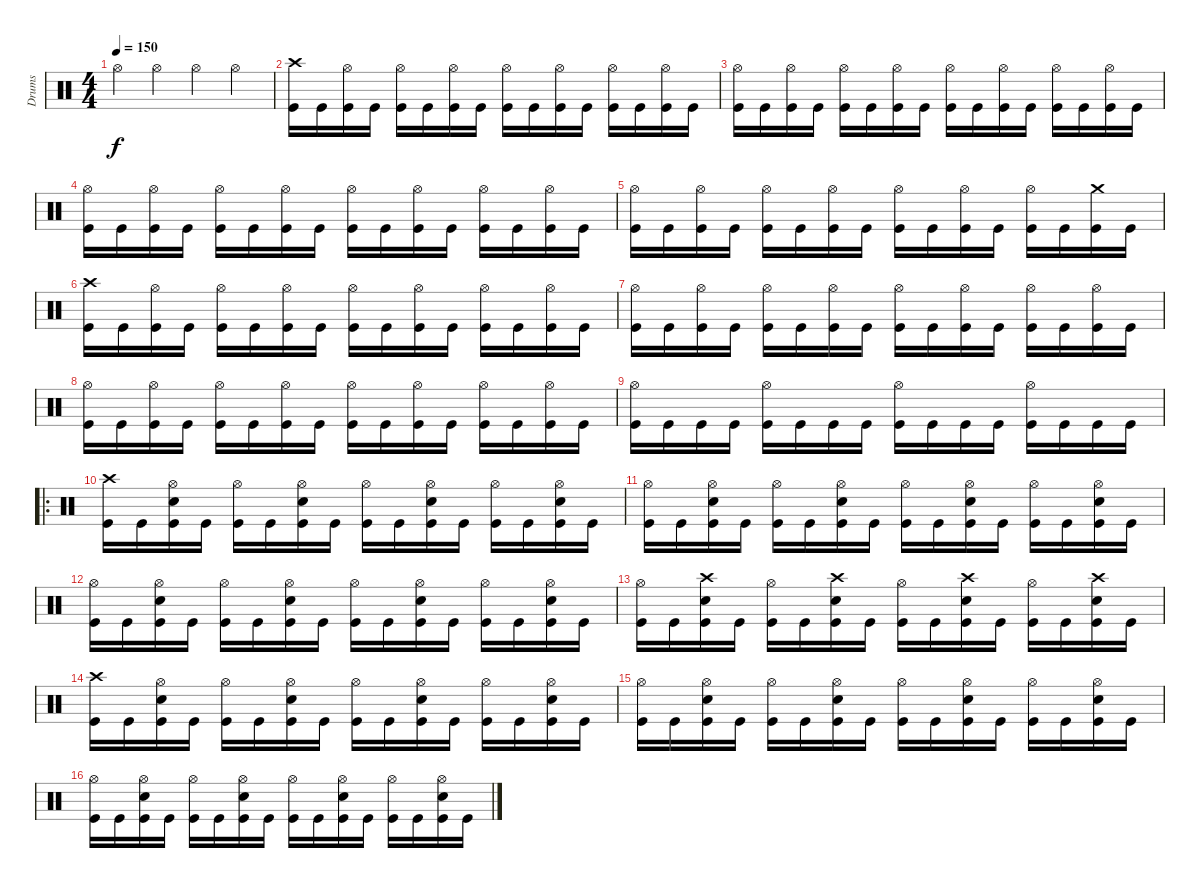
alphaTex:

\track ("Drums" "Drums") {instrument percussion}
\staff {score}
\articulation defaults
\ts (4 4)
\tempo 150
\clef neutral
\ks c "Hi-Hat (open)".4{dy f} "Hi-Hat (open)".4 "Hi-Hat (open)".4 "Hi-Hat (open)".4
|
("Crash high (hit)" "Kick (hit)").16 "Kick (hit)".16 ("Hi-Hat (open)" "Kick (hit)").16 "Kick (hit)".16 ("Hi-Hat (open)" "Kick (hit)").16 "Kick (hit)".16 ("Hi-Hat (open)" "Kick (hit)").16 "Kick (hit)".16 ("Hi-Hat (open)" "Kick (hit)").16 "Kick (hit)".16 ("Hi-Hat (open)" "Kick (hit)").16 "Kick (hit)".16 ("Hi-Hat (open)" "Kick (hit)").16 "Kick (hit)".16 ("Hi-Hat (open)" "Kick (hit)").16 "Kick (hit)".16 |
("Hi-Hat (open)" "Kick (hit)").16 "Kick (hit)".16 ("Hi-Hat (open)" "Kick (hit)").16 "Kick (hit)".16 ("Hi-Hat (open)" "Kick (hit)").16 "Kick (hit)".16 ("Hi-Hat (open)" "Kick (hit)").16 "Kick (hit)".16 ("Hi-Hat (open)" "Kick (hit)").16 "Kick (hit)".16 ("Hi-Hat (open)" "Kick (hit)").16 "Kick (hit)".16 ("Hi-Hat (open)" "Kick (hit)").16 "Kick (hit)".16 ("Hi-Hat (open)" "Kick (hit)").16 "Kick (hit)".16 |
("Hi-Hat (open)" "Kick (hit)").16 "Kick (hit)".16 ("Hi-Hat (open)" "Kick (hit)").16 "Kick (hit)".16 ("Hi-Hat (open)" "Kick (hit)").16 "Kick (hit)".16 ("Hi-Hat (open)" "Kick (hit)").16 "Kick (hit)".16 ("Hi-Hat (open)" "Kick (hit)").16 "Kick (hit)".16 ("Hi-Hat (open)" "Kick (hit)").16 "Kick (hit)".16 ("Hi-Hat (open)" "Kick (hit)").16 "Kick (hit)".16 ("Hi-Hat (open)" "Kick (hit)").16 "Kick (hit)".16 |
("Hi-Hat (open)" "Kick (hit)").16 "Kick (hit)".16 ("Hi-Hat (open)" "Kick (hit)").16 "Kick (hit)".16 ("Hi-Hat (open)" "Kick (hit)").16 "Kick (hit)".16 ("Hi-Hat (open)" "Kick (hit)").16 "Kick (hit)".16 ("Hi-Hat (open)" "Kick (hit)").16 "Kick (hit)".16 ("Hi-Hat (open)" "Kick (hit)").16 "Kick (hit)".16 ("Hi-Hat (open)" "Kick (hit)").16 "Kick (hit)".16 ("Crash medium (hit)" "Kick (hit)").16 "Kick (hit)".16 |
("Crash high (hit)" "Kick (hit)").16 "Kick (hit)".16 ("Hi-Hat (open)" "Kick (hit)").16 "Kick (hit)".16 ("Hi-Hat (open)" "Kick (hit)").16 "Kick (hit)".16 ("Hi-Hat (open)" "Kick (hit)").16 "Kick (hit)".16 ("Hi-Hat (open)" "Kick (hit)").16 "Kick (hit)".16 ("Hi-Hat (open)" "Kick (hit)").16 "Kick (hit)".16 ("Hi-Hat (open)" "Kick (hit)").16 "Kick (hit)".16 ("Hi-Hat (open)" "Kick (hit)").16 "Kick (hit)".16 |
("Hi-Hat (open)" "Kick (hit)").16 "Kick (hit)".16 ("Hi-Hat (open)" "Kick (hit)").16 "Kick (hit)".16 ("Hi-Hat (open)" "Kick (hit)").16 "Kick (hit)".16 ("Hi-Hat (open)" "Kick (hit)").16 "Kick (hit)".16 ("Hi-Hat (open)" "Kick (hit)").16 "Kick (hit)".16 ("Hi-Hat (open)" "Kick (hit)").16 "Kick (hit)".16 ("Hi-Hat (open)" "Kick (hit)").16 "Kick (hit)".16 ("Hi-Hat (open)" "Kick (hit)").16 "Kick (hit)".16 |
("Hi-Hat (open)" "Kick (hit)").16 "Kick (hit)".16 ("Hi-Hat (open)" "Kick (hit)").16 "Kick (hit)".16 ("Hi-Hat (open)" "Kick (hit)").16 "Kick (hit)".16 ("Hi-Hat (open)" "Kick (hit)").16 "Kick (hit)".16 ("Hi-Hat (open)" "Kick (hit)").16 "Kick (hit)".16 ("Hi-Hat (open)" "Kick (hit)").16 "Kick (hit)".16 ("Hi-Hat (open)" "Kick (hit)").16 "Kick (hit)".16 ("Hi-Hat (open)" "Kick (hit)").16 "Kick (hit)".16 |
("Hi-Hat (open)" "Kick (hit)").16 "Kick (hit)".16 "Kick (hit)".16 "Kick (hit)".16 ("Hi-Hat (open)" "Kick (hit)").16 "Kick (hit)".16 "Kick (hit)".16 "Kick (hit)".16 ("Hi-Hat (open)" "Kick (hit)").16 "Kick (hit)".16 "Kick (hit)".16 "Kick (hit)".16 ("Hi-Hat (open)" "Kick (hit)").16 "Kick (hit)".16 "Kick (hit)".16 "Kick (hit)".16 |
\ro
("Crash high (hit)" "Kick (hit)").16 "Kick (hit)".16 ("Hi-Hat (open)" "Snare (hit) 2" "Kick (hit)").16 "Kick (hit)".16 ("Hi-Hat (open)" "Kick (hit)").16 "Kick (hit)".16 ("Hi-Hat (open)" "Snare (hit) 2" "Kick (hit)").16 "Kick (hit)".16 ("Hi-Hat (open)" "Kick (hit)").16 "Kick (hit)".16 ("Hi-Hat (open)" "Snare (hit) 2" "Kick (hit)").16 "Kick (hit)".16 ("Hi-Hat (open)" "Kick (hit)").16 "Kick (hit)".16 ("Hi-Hat (open)" "Snare (hit) 2" "Kick (hit)").16 "Kick (hit)".16 |
("Hi-Hat (open)" "Kick (hit)").16 "Kick (hit)".16 ("Hi-Hat (open)" "Snare (hit) 2" "Kick (hit)").16 "Kick (hit)".16 ("Hi-Hat (open)" "Kick (hit)").16 "Kick (hit)".16 ("Hi-Hat (open)" "Snare (hit) 2" "Kick (hit)").16 "Kick (hit)".16 ("Hi-Hat (open)" "Kick (hit)").16 "Kick (hit)".16 ("Hi-Hat (open)" "Snare (hit) 2" "Kick (hit)").16 "Kick (hit)".16 ("Hi-Hat (open)" "Kick (hit)").16 "Kick (hit)".16 ("Hi-Hat (open)" "Snare (hit) 2" "Kick (hit)").16 "Kick (hit)".16 |
("Hi-Hat (open)" "Kick (hit)").16 "Kick (hit)".16 ("Hi-Hat (open)" "Snare (hit) 2" "Kick (hit)").16 "Kick (hit)".16 ("Hi-Hat (open)" "Kick (hit)").16 "Kick (hit)".16 ("Hi-Hat (open)" "Snare (hit) 2" "Kick (hit)").16 "Kick (hit)".16 ("Hi-Hat (open)" "Kick (hit)").16 "Kick (hit)".16 ("Hi-Hat (open)" "Snare (hit) 2" "Kick (hit)").16 "Kick (hit)".16 ("Hi-Hat (open)" "Kick (hit)").16 "Kick (hit)".16 ("Hi-Hat (open)" "Snare (hit) 2" "Kick (hit)").16 "Kick (hit)".16 |
("Hi-Hat (open)" "Kick (hit)").16 "Kick (hit)".16 ("Crash high (hit)" "Snare (hit) 2" "Kick (hit)").16 "Kick (hit)".16 ("Hi-Hat (open)" "Kick (hit)").16 "Kick (hit)".16 ("Crash high (hit)" "Snare (hit) 2" "Kick (hit)").16 "Kick (hit)".16 ("Hi-Hat (open)" "Kick (hit)").16 "Kick (hit)".16 ("Crash high (hit)" "Snare (hit) 2" "Kick (hit)").16 "Kick (hit)".16 ("Hi-Hat (open)" "Kick (hit)").16 "Kick (hit)".16 ("Crash high (hit)" "Snare (hit) 2" "Kick (hit)").16 "Kick (hit)".16 |
("Crash high (hit)" "Kick (hit)").16 "Kick (hit)".16 ("Hi-Hat (open)" "Snare (hit) 2" "Kick (hit)").16 "Kick (hit)".16 ("Hi-Hat (open)" "Kick (hit)").16 "Kick (hit)".16 ("Hi-Hat (open)" "Snare (hit) 2" "Kick (hit)").16 "Kick (hit)".16 ("Hi-Hat (open)" "Kick (hit)").16 "Kick (hit)".16 ("Hi-Hat (open)" "Snare (hit) 2" "Kick (hit)").16 "Kick (hit)".16 ("Hi-Hat (open)" "Kick (hit)").16 "Kick (hit)".16 ("Hi-Hat (open)" "Snare (hit) 2" "Kick (hit)").16 "Kick (hit)".16 |
("Hi-Hat (open)" "Kick (hit)").16 "Kick (hit)".16 ("Hi-Hat (open)" "Snare (hit) 2" "Kick (hit)").16 "Kick (hit)".16 ("Hi-Hat (open)" "Kick (hit)").16 "Kick (hit)".16 ("Hi-Hat (open)" "Snare (hit) 2" "Kick (hit)").16 "Kick (hit)".16 ("Hi-Hat (open)" "Kick (hit)").16 "Kick (hit)".16 ("Hi-Hat (open)" "Snare (hit) 2" "Kick (hit)").16 "Kick (hit)".16 ("Hi-Hat (open)" "Kick (hit)").16 "Kick (hit)".16 ("Hi-Hat (open)" "Snare (hit) 2" "Kick (hit)").16 "Kick (hit)".16 |
("Hi-Hat (open)" "Kick (hit)").16 "Kick (hit)".16 ("Hi-Hat (open)" "Snare (hit) 2" "Kick (hit)").16 "Kick (hit)".16 ("Hi-Hat (open)" "Kick (hit)").16 "Kick (hit)".16 ("Hi-Hat (open)" "Snare (hit) 2" "Kick (hit)").16 "Kick (hit)".16 ("Hi-Hat (open)" "Kick (hit)").16 "Kick (hit)".16 ("Hi-Hat (open)" "Snare (hit) 2" "Kick (hit)").16 "Kick (hit)".16 ("Hi-Hat (open)" "Kick (hit)").16 "Kick (hit)".16 ("Hi-Hat (open)" "Snare (hit) 2" "Kick (hit)").16 "Kick (hit)".16
